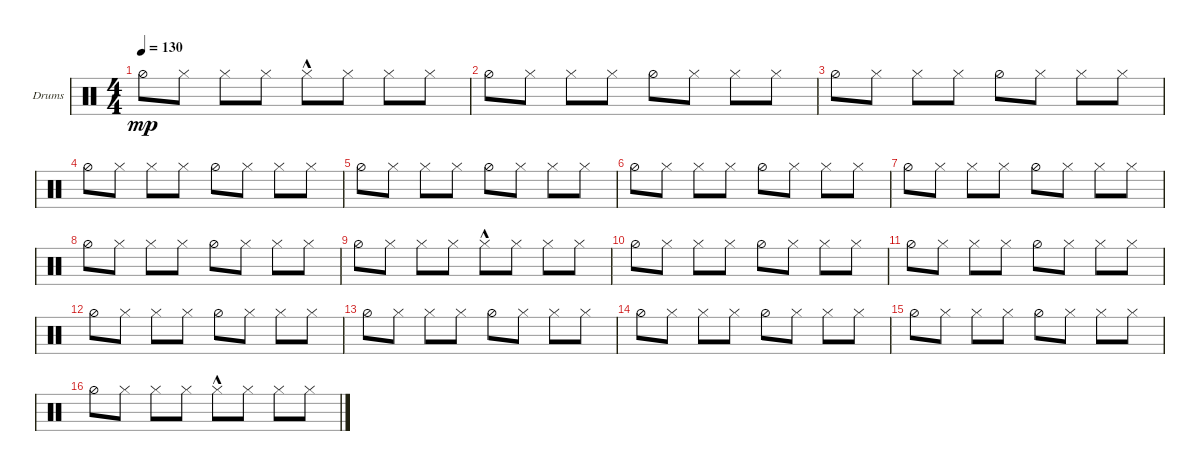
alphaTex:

\defaultSystemsLayout 4
\bracketExtendMode groupsimilarinstruments
\firstSystemTrackNameOrientation horizontal
\otherSystemsTrackNameOrientation horizontal
\track ("Drumkit" "Drums") {instrument percussion}
\staff {score}
\articulation defaults
\ts (4 4)
\tempo 130
\clef neutral
\ks c "Hi-Hat (half)".8{dy mp} "Hi-Hat (closed)".8 "Hi-Hat (closed)".8 "Hi-Hat (closed)".8 "Hi-Hat (closed)"{hac}.8 "Hi-Hat (closed)".8 "Hi-Hat (closed)".8 "Hi-Hat (closed)".8
|
"Hi-Hat (half)".8 "Hi-Hat (closed)".8 "Hi-Hat (closed)".8 "Hi-Hat (closed)".8 "Hi-Hat (half)".8 "Hi-Hat (closed)".8 "Hi-Hat (closed)".8 "Hi-Hat (closed)".8 |
"Hi-Hat (half)".8 "Hi-Hat (closed)".8 "Hi-Hat (closed)".8 "Hi-Hat (closed)".8 "Hi-Hat (half)".8 "Hi-Hat (closed)".8 "Hi-Hat (closed)".8 "Hi-Hat (closed)".8 |
"Hi-Hat (half)".8 "Hi-Hat (closed)".8 "Hi-Hat (closed)".8 "Hi-Hat (closed)".8 "Hi-Hat (half)".8 "Hi-Hat (closed)".8 "Hi-Hat (closed)".8 "Hi-Hat (closed)".8 |
"Hi-Hat (half)".8 "Hi-Hat (closed)".8 "Hi-Hat (closed)".8 "Hi-Hat (closed)".8 "Hi-Hat (half)".8 "Hi-Hat (closed)".8 "Hi-Hat (closed)".8 "Hi-Hat (closed)".8 |
"Hi-Hat (half)".8 "Hi-Hat (closed)".8 "Hi-Hat (closed)".8 "Hi-Hat (closed)".8 "Hi-Hat (half)".8 "Hi-Hat (closed)".8 "Hi-Hat (closed)".8 "Hi-Hat (closed)".8 |
"Hi-Hat (half)".8 "Hi-Hat (closed)".8 "Hi-Hat (closed)".8 "Hi-Hat (closed)".8 "Hi-Hat (half)".8 "Hi-Hat (closed)".8 "Hi-Hat (closed)".8 "Hi-Hat (closed)".8 |
"Hi-Hat (half)".8 "Hi-Hat (closed)".8 "Hi-Hat (closed)".8 "Hi-Hat (closed)".8 "Hi-Hat (half)".8 "Hi-Hat (closed)".8 "Hi-Hat (closed)".8 "Hi-Hat (closed)".8 |
"Hi-Hat (half)".8 "Hi-Hat (closed)".8 "Hi-Hat (closed)".8 "Hi-Hat (closed)".8 "Hi-Hat (closed)"{hac}.8 "Hi-Hat (closed)".8 "Hi-Hat (closed)".8 "Hi-Hat (closed)".8 |
"Hi-Hat (half)".8 "Hi-Hat (closed)".8 "Hi-Hat (closed)".8 "Hi-Hat (closed)".8 "Hi-Hat (half)".8 "Hi-Hat (closed)".8 "Hi-Hat (closed)".8 "Hi-Hat (closed)".8 |
"Hi-Hat (half)".8 "Hi-Hat (closed)".8 "Hi-Hat (closed)".8 "Hi-Hat (closed)".8 "Hi-Hat (half)".8 "Hi-Hat (closed)".8 "Hi-Hat (closed)".8 "Hi-Hat (closed)".8 |
"Hi-Hat (half)".8 "Hi-Hat (closed)".8 "Hi-Hat (closed)".8 "Hi-Hat (closed)".8 "Hi-Hat (half)".8 "Hi-Hat (closed)".8 "Hi-Hat (closed)".8 "Hi-Hat (closed)".8 |
"Hi-Hat (half)".8 "Hi-Hat (closed)".8 "Hi-Hat (closed)".8 "Hi-Hat (closed)".8 "Hi-Hat (half)".8 "Hi-Hat (closed)".8 "Hi-Hat (closed)".8 "Hi-Hat (closed)".8 |
"Hi-Hat (half)".8 "Hi-Hat (closed)".8 "Hi-Hat (closed)".8 "Hi-Hat (closed)".8 "Hi-Hat (half)".8 "Hi-Hat (closed)".8 "Hi-Hat (closed)".8 "Hi-Hat (closed)".8 |
"Hi-Hat (half)".8 "Hi-Hat (closed)".8 "Hi-Hat (closed)".8 "Hi-Hat (closed)".8 "Hi-Hat (half)".8 "Hi-Hat (closed)".8 "Hi-Hat (closed)".8 "Hi-Hat (closed)".8 |
"Hi-Hat (half)".8 "Hi-Hat (closed)".8 "Hi-Hat (closed)".8 "Hi-Hat (closed)".8 "Hi-Hat (closed)"{hac}.8 "Hi-Hat (closed)".8 "Hi-Hat (closed)".8 "Hi-Hat (closed)".8
